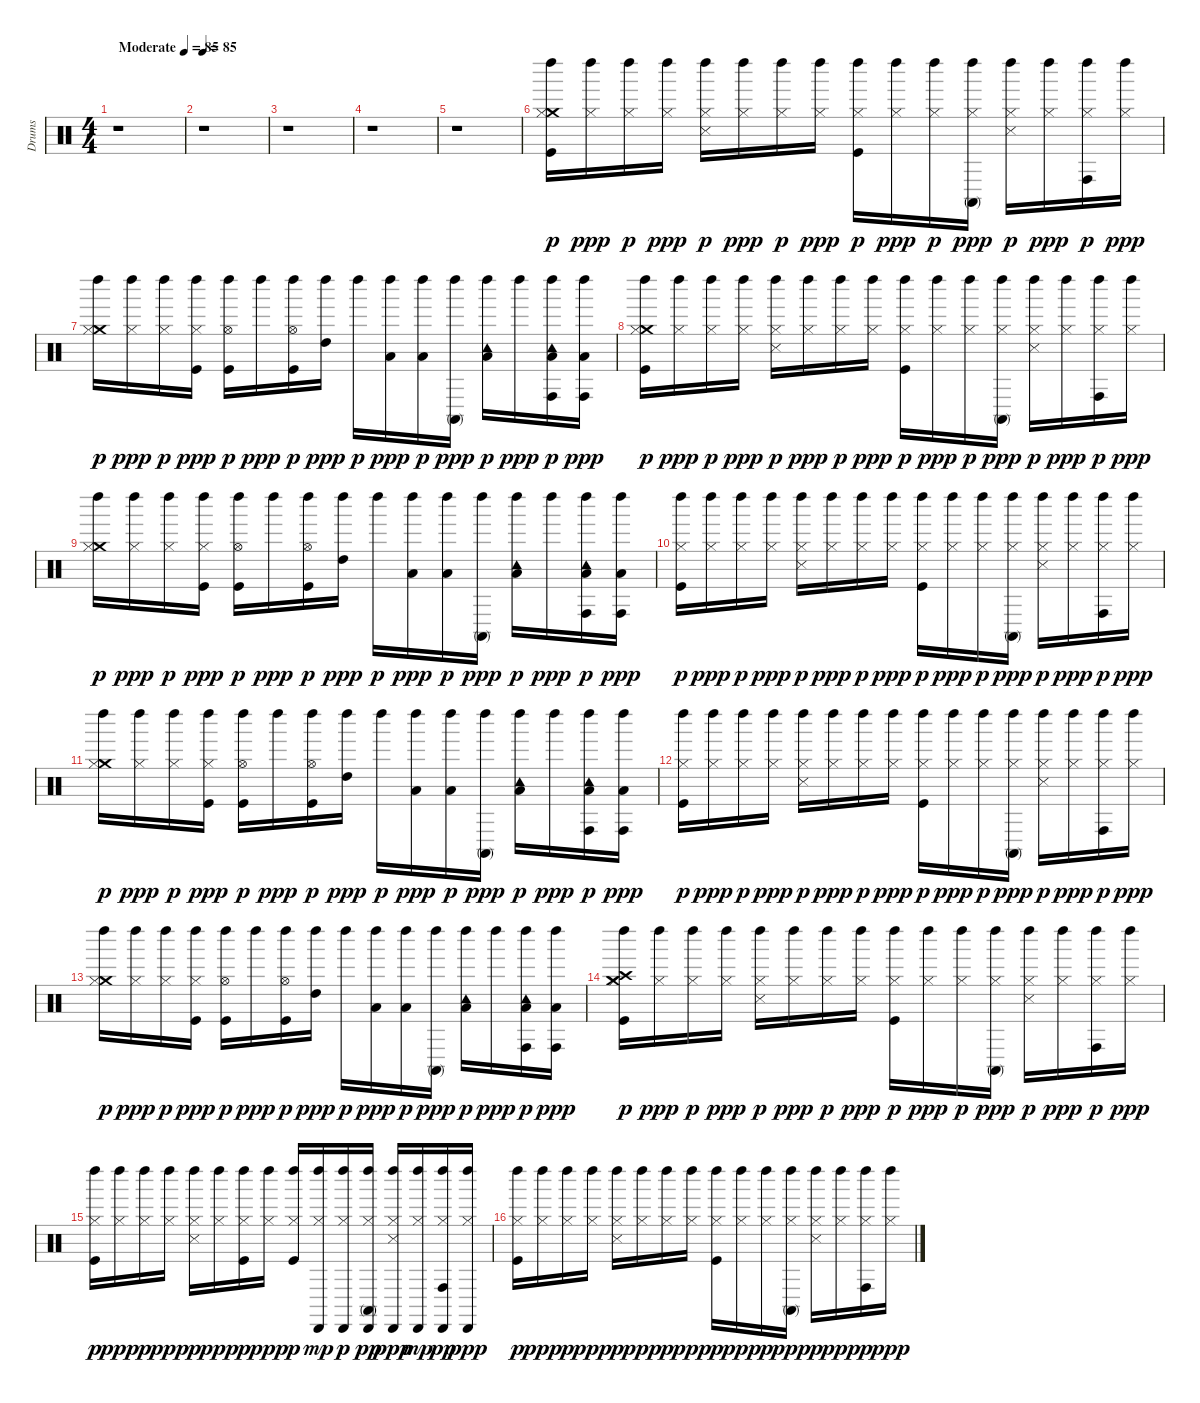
\track ("Drums" "Drums") {instrument percussion}
\staff {score}
\articulation defaults
\ts (4 4)
\tempo (85 "Moderate")
\clef neutral
\ks c
r.1{dy p} |
\tempo 85
r.1 |
r.1 |
r.1 |
r.1 |
("Crash medium (hit)" "Kick (hit)" "Hi-Hat (closed)" "Left Maraca (hit)").16 ("Hi-Hat (closed)" "Left Maraca (hit)").16{dy ppp} ("Hi-Hat (closed)" "Left Maraca (hit)").16{dy p} ("Hi-Hat (closed)" "Left Maraca (hit)").16{dy ppp} ("Hi-Hat (closed)" "Snare (side stick) 3" "Left Maraca (hit)").16{dy p} ("Hi-Hat (closed)" "Left Maraca (hit)").16{dy ppp} ("Hi-Hat (closed)" "Left Maraca (hit)").16{dy p} ("Hi-Hat (closed)" "Left Maraca (hit)").16{dy ppp} ("Kick (hit)" "Hi-Hat (closed)" "Left Maraca (hit)").16{dy p} ("Hi-Hat (closed)" "Left Maraca (hit)").16{dy ppp} ("Hi-Hat (closed)" "Left Maraca (hit)").16{dy p} ("Hi-Hat (closed)" "Conga high (mute)" "Left Maraca (hit)").16{dy ppp} ("Hi-Hat (closed)" "Snare (side stick) 3" "Left Maraca (hit)").16{dy p} ("Hi-Hat (closed)" "Left Maraca (hit)").16{dy ppp} ("Hi-Hat (closed)" "Conga high (hit)" "Left Maraca (hit)").16{dy p} ("Hi-Hat (closed)" "Left Maraca (hit)").16{dy ppp} |
("Crash medium (hit)" "Hi-Hat (closed)" "Left Maraca (hit)").16{dy p} ("Hi-Hat (closed)" "Left Maraca (hit)").16{dy ppp} ("Hi-Hat (closed)" "Left Maraca (hit)").16{dy p} ("Kick (hit)" "Hi-Hat (closed)" "Left Maraca (hit)").16{dy ppp} ("Kick (hit)" "Hi-Hat (open)" "Left Maraca (hit)").16{dy p} "Left Maraca (hit)".16{dy ppp} ("Kick (hit)" "Hi-Hat (open)" "Left Maraca (hit)").16{dy p} ("High Tom (hit)" "Left Maraca (hit)").16{dy ppp} "Left Maraca (hit)".16{dy p} ("Low Tom (hit)" "Left Maraca (hit)").16{dy ppp} ("Low Tom (hit)" "Left Maraca (hit)").16{dy p} ("Conga high (mute)" "Left Maraca (hit)").16{dy ppp} ("Low Tom (hit)" "Tambourine (hit)" "Left Maraca (hit)").16{dy p} "Left Maraca (hit)".16{dy ppp} ("Low Floor Tom (hit)" "Conga high (hit)" "Tambourine (hit)" "Left Maraca (hit)").16{dy p} ("Low Floor Tom (hit)" "Conga high (hit)" "Left Maraca (hit)").16{dy ppp} |
("Crash medium (hit)" "Kick (hit)" "Hi-Hat (closed)" "Left Maraca (hit)").16{dy p} ("Hi-Hat (closed)" "Left Maraca (hit)").16{dy ppp} ("Hi-Hat (closed)" "Left Maraca (hit)").16{dy p} ("Hi-Hat (closed)" "Left Maraca (hit)").16{dy ppp} ("Hi-Hat (closed)" "Snare (side stick) 3" "Left Maraca (hit)").16{dy p} ("Hi-Hat (closed)" "Left Maraca (hit)").16{dy ppp} ("Hi-Hat (closed)" "Left Maraca (hit)").16{dy p} ("Hi-Hat (closed)" "Left Maraca (hit)").16{dy ppp} ("Kick (hit)" "Hi-Hat (closed)" "Left Maraca (hit)").16{dy p} ("Hi-Hat (closed)" "Left Maraca (hit)").16{dy ppp} ("Hi-Hat (closed)" "Left Maraca (hit)").16{dy p} ("Hi-Hat (closed)" "Conga high (mute)" "Left Maraca (hit)").16{dy ppp} ("Hi-Hat (closed)" "Snare (side stick) 3" "Left Maraca (hit)").16{dy p} ("Hi-Hat (closed)" "Left Maraca (hit)").16{dy ppp} ("Hi-Hat (closed)" "Conga high (hit)" "Left Maraca (hit)").16{dy p} ("Hi-Hat (closed)" "Left Maraca (hit)").16{dy ppp} |
("Crash medium (hit)" "Hi-Hat (closed)" "Left Maraca (hit)").16{dy p} ("Hi-Hat (closed)" "Left Maraca (hit)").16{dy ppp} ("Hi-Hat (closed)" "Left Maraca (hit)").16{dy p} ("Kick (hit)" "Hi-Hat (closed)" "Left Maraca (hit)").16{dy ppp} ("Kick (hit)" "Hi-Hat (open)" "Left Maraca (hit)").16{dy p} "Left Maraca (hit)".16{dy ppp} ("Kick (hit)" "Hi-Hat (open)" "Left Maraca (hit)").16{dy p} ("High Tom (hit)" "Left Maraca (hit)").16{dy ppp} "Left Maraca (hit)".16{dy p} ("Low Tom (hit)" "Left Maraca (hit)").16{dy ppp} ("Low Tom (hit)" "Left Maraca (hit)").16{dy p} ("Conga high (mute)" "Left Maraca (hit)").16{dy ppp} ("Low Tom (hit)" "Tambourine (hit)" "Left Maraca (hit)").16{dy p} "Left Maraca (hit)".16{dy ppp} ("Low Floor Tom (hit)" "Conga high (hit)" "Tambourine (hit)" "Left Maraca (hit)").16{dy p} ("Low Floor Tom (hit)" "Conga high (hit)" "Left Maraca (hit)").16{dy ppp} |
("Kick (hit)" "Hi-Hat (closed)" "Left Maraca (hit)").16{dy p} ("Hi-Hat (closed)" "Left Maraca (hit)").16{dy ppp} ("Hi-Hat (closed)" "Left Maraca (hit)").16{dy p} ("Hi-Hat (closed)" "Left Maraca (hit)").16{dy ppp} ("Hi-Hat (closed)" "Snare (side stick) 3" "Left Maraca (hit)").16{dy p} ("Hi-Hat (closed)" "Left Maraca (hit)").16{dy ppp} ("Hi-Hat (closed)" "Left Maraca (hit)").16{dy p} ("Hi-Hat (closed)" "Left Maraca (hit)").16{dy ppp} ("Kick (hit)" "Hi-Hat (closed)" "Left Maraca (hit)").16{dy p} ("Hi-Hat (closed)" "Left Maraca (hit)").16{dy ppp} ("Hi-Hat (closed)" "Left Maraca (hit)").16{dy p} ("Hi-Hat (closed)" "Conga high (mute)" "Left Maraca (hit)").16{dy ppp} ("Hi-Hat (closed)" "Snare (side stick) 3" "Left Maraca (hit)").16{dy p} ("Hi-Hat (closed)" "Left Maraca (hit)").16{dy ppp} ("Hi-Hat (closed)" "Conga high (hit)" "Left Maraca (hit)").16{dy p} ("Hi-Hat (closed)" "Left Maraca (hit)").16{dy ppp} |
("Crash medium (hit)" "Hi-Hat (closed)" "Left Maraca (hit)").16{dy p} ("Hi-Hat (closed)" "Left Maraca (hit)").16{dy ppp} ("Hi-Hat (closed)" "Left Maraca (hit)").16{dy p} ("Kick (hit)" "Hi-Hat (closed)" "Left Maraca (hit)").16{dy ppp} ("Kick (hit)" "Hi-Hat (open)" "Left Maraca (hit)").16{dy p} "Left Maraca (hit)".16{dy ppp} ("Kick (hit)" "Hi-Hat (open)" "Left Maraca (hit)").16{dy p} ("High Tom (hit)" "Left Maraca (hit)").16{dy ppp} "Left Maraca (hit)".16{dy p} ("Low Tom (hit)" "Left Maraca (hit)").16{dy ppp} ("Low Tom (hit)" "Left Maraca (hit)").16{dy p} ("Conga high (mute)" "Left Maraca (hit)").16{dy ppp} ("Low Tom (hit)" "Tambourine (hit)" "Left Maraca (hit)").16{dy p} "Left Maraca (hit)".16{dy ppp} ("Low Floor Tom (hit)" "Conga high (hit)" "Tambourine (hit)" "Left Maraca (hit)").16{dy p} ("Low Floor Tom (hit)" "Conga high (hit)" "Left Maraca (hit)").16{dy ppp} |
("Kick (hit)" "Hi-Hat (closed)" "Left Maraca (hit)").16{dy p} ("Hi-Hat (closed)" "Left Maraca (hit)").16{dy ppp} ("Hi-Hat (closed)" "Left Maraca (hit)").16{dy p} ("Hi-Hat (closed)" "Left Maraca (hit)").16{dy ppp} ("Hi-Hat (closed)" "Snare (side stick) 3" "Left Maraca (hit)").16{dy p} ("Hi-Hat (closed)" "Left Maraca (hit)").16{dy ppp} ("Hi-Hat (closed)" "Left Maraca (hit)").16{dy p} ("Hi-Hat (closed)" "Left Maraca (hit)").16{dy ppp} ("Kick (hit)" "Hi-Hat (closed)" "Left Maraca (hit)").16{dy p} ("Hi-Hat (closed)" "Left Maraca (hit)").16{dy ppp} ("Hi-Hat (closed)" "Left Maraca (hit)").16{dy p} ("Hi-Hat (closed)" "Conga high (mute)" "Left Maraca (hit)").16{dy ppp} ("Hi-Hat (closed)" "Snare (side stick) 3" "Left Maraca (hit)").16{dy p} ("Hi-Hat (closed)" "Left Maraca (hit)").16{dy ppp} ("Hi-Hat (closed)" "Conga high (hit)" "Left Maraca (hit)").16{dy p} ("Hi-Hat (closed)" "Left Maraca (hit)").16{dy ppp} |
("Crash medium (hit)" "Hi-Hat (closed)" "Left Maraca (hit)").16{dy p} ("Hi-Hat (closed)" "Left Maraca (hit)").16{dy ppp} ("Hi-Hat (closed)" "Left Maraca (hit)").16{dy p} ("Kick (hit)" "Hi-Hat (closed)" "Left Maraca (hit)").16{dy ppp} ("Kick (hit)" "Hi-Hat (open)" "Left Maraca (hit)").16{dy p} "Left Maraca (hit)".16{dy ppp} ("Kick (hit)" "Hi-Hat (open)" "Left Maraca (hit)").16{dy p} ("High Tom (hit)" "Left Maraca (hit)").16{dy ppp} "Left Maraca (hit)".16{dy p} ("Low Tom (hit)" "Left Maraca (hit)").16{dy ppp} ("Low Tom (hit)" "Left Maraca (hit)").16{dy p} ("Conga high (mute)" "Left Maraca (hit)").16{dy ppp} ("Low Tom (hit)" "Tambourine (hit)" "Left Maraca (hit)").16{dy p} "Left Maraca (hit)".16{dy ppp} ("Low Floor Tom (hit)" "Conga high (hit)" "Tambourine (hit)" "Left Maraca (hit)").16{dy p} ("Low Floor Tom (hit)" "Conga high (hit)" "Left Maraca (hit)").16{dy ppp} |
("Crash medium (hit)" "Kick (hit)" "Hi-Hat (closed)" "Crash high (hit)" "Left Maraca (hit)").16{dy p} ("Hi-Hat (closed)" "Left Maraca (hit)").16{dy ppp} ("Hi-Hat (closed)" "Left Maraca (hit)").16{dy p} ("Hi-Hat (closed)" "Left Maraca (hit)").16{dy ppp} ("Hi-Hat (closed)" "Snare (side stick) 3" "Left Maraca (hit)").16{dy p} ("Hi-Hat (closed)" "Left Maraca (hit)").16{dy ppp} ("Hi-Hat (closed)" "Left Maraca (hit)").16{dy p} ("Hi-Hat (closed)" "Left Maraca (hit)").16{dy ppp} ("Kick (hit)" "Hi-Hat (closed)" "Left Maraca (hit)").16{dy p} ("Hi-Hat (closed)" "Left Maraca (hit)").16{dy ppp} ("Hi-Hat (closed)" "Left Maraca (hit)").16{dy p} ("Hi-Hat (closed)" "Conga high (mute)" "Left Maraca (hit)").16{dy ppp} ("Hi-Hat (closed)" "Snare (side stick) 3" "Left Maraca (hit)").16{dy p} ("Hi-Hat (closed)" "Left Maraca (hit)").16{dy ppp} ("Hi-Hat (closed)" "Conga high (hit)" "Left Maraca (hit)").16{dy p} ("Hi-Hat (closed)" "Left Maraca (hit)").16{dy ppp} |
("Kick (hit)" "Hi-Hat (closed)" "Left Maraca (hit)").16{dy p} ("Hi-Hat (closed)" "Left Maraca (hit)").16{dy ppp} ("Hi-Hat (closed)" "Left Maraca (hit)").16{dy p} ("Hi-Hat (closed)" "Left Maraca (hit)").16{dy ppp} ("Hi-Hat (closed)" "Snare (side stick) 3" "Left Maraca (hit)").16{dy p} ("Hi-Hat (closed)" "Left Maraca (hit)").16{dy ppp} ("Kick (hit)" "Hi-Hat (closed)" "Left Maraca (hit)").16{dy p} ("Hi-Hat (closed)" "Left Maraca (hit)").16{dy ppp} ("Kick (hit)" "Hi-Hat (closed)" "Left Maraca (hit)").16{dy p} ("Hi-Hat (closed)" "Left Maraca (hit)" "Cabasa (hit)").16{dy mp} ("Hi-Hat (closed)" "Left Maraca (hit)" "Cabasa (hit)").16{dy p} ("Hi-Hat (closed)" "Conga high (mute)" "Left Maraca (hit)" "Cabasa (hit)").16{dy pp} ("Hi-Hat (closed)" "Snare (side stick) 3" "Left Maraca (hit)" "Cabasa (hit)").16{dy ppp} ("Hi-Hat (closed)" "Left Maraca (hit)" "Cabasa (hit)").16{dy mp} ("Hi-Hat (closed)" "Conga high (hit)" "Left Maraca (hit)" "Cabasa (hit)").16{dy pp} ("Hi-Hat (closed)" "Left Maraca (hit)" "Cabasa (hit)").16{dy ppp} |
("Kick (hit)" "Hi-Hat (closed)" "Left Maraca (hit)").16{dy p} ("Hi-Hat (closed)" "Left Maraca (hit)").16{dy ppp} ("Hi-Hat (closed)" "Left Maraca (hit)").16{dy p} ("Hi-Hat (closed)" "Left Maraca (hit)").16{dy ppp} ("Hi-Hat (closed)" "Snare (side stick) 3" "Left Maraca (hit)").16{dy p} ("Hi-Hat (closed)" "Left Maraca (hit)").16{dy ppp} ("Hi-Hat (closed)" "Left Maraca (hit)").16{dy p} ("Hi-Hat (closed)" "Left Maraca (hit)").16{dy ppp} ("Kick (hit)" "Hi-Hat (closed)" "Left Maraca (hit)").16{dy p} ("Hi-Hat (closed)" "Left Maraca (hit)").16{dy ppp} ("Hi-Hat (closed)" "Left Maraca (hit)").16{dy p} ("Hi-Hat (closed)" "Conga high (mute)" "Left Maraca (hit)").16{dy ppp} ("Hi-Hat (closed)" "Snare (side stick) 3" "Left Maraca (hit)").16{dy p} ("Hi-Hat (closed)" "Left Maraca (hit)").16{dy ppp} ("Hi-Hat (closed)" "Conga high (hit)" "Left Maraca (hit)").16{dy p} ("Hi-Hat (closed)" "Left Maraca (hit)").16{dy ppp}
